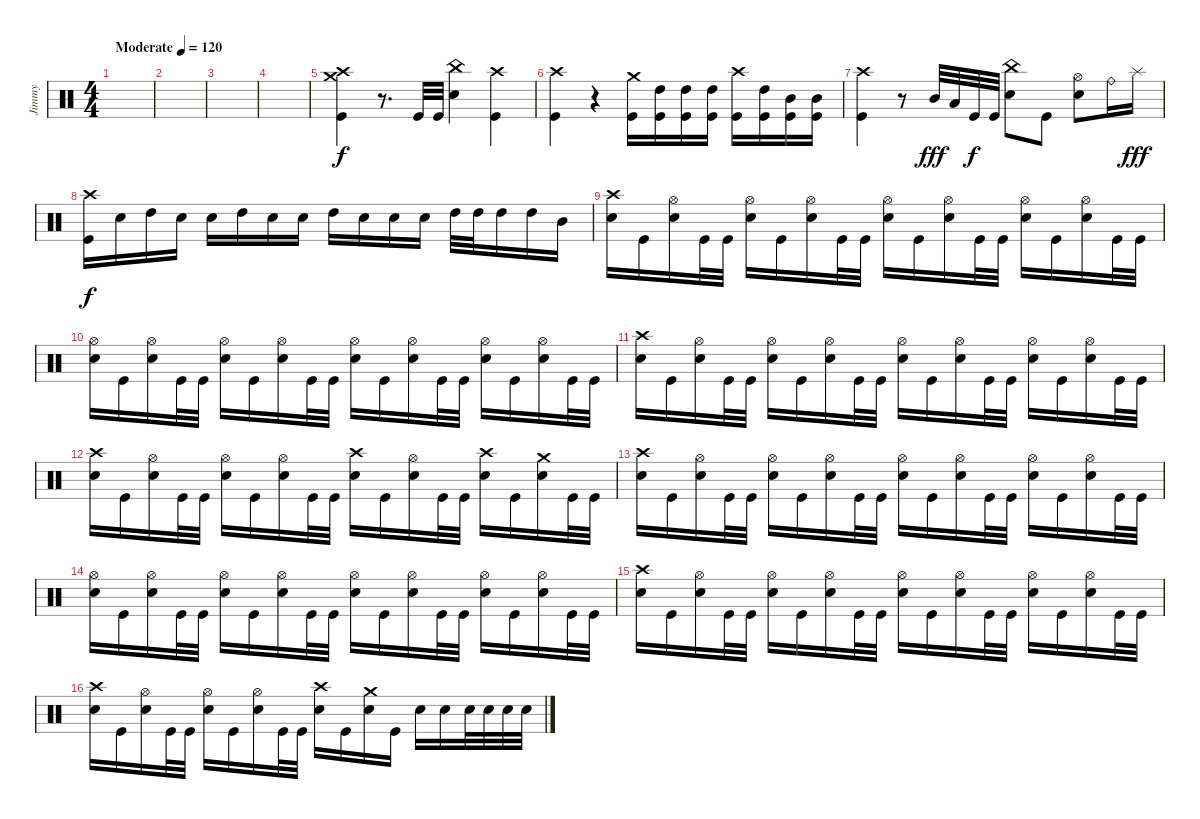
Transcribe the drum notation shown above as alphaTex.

\track ("Jimmy" "Jimmy") {instrument percussion}
\staff {score}
\articulation defaults
\ts (4 4)
\tempo (120 "Moderate")
\clef neutral
\ks c
|
|
|
|
("Crash high (hit)" "Kick (hit)" "Crash medium (hit)").4 r.8{d} "Kick (hit)".32 "Kick (hit)".32 ("Snare (hit) 2" "China (hit)").4 ("Crash high (hit)" "Kick (hit)").4 |
("Kick (hit)" "Crash high (hit)").4 r.4 ("Kick (hit)" "Crash medium (hit)").16 ("High Tom (hit)" "Kick (hit)").16 ("High Tom (hit)" "Kick (hit)").16 ("High Tom (hit)" "Kick (hit)").16 ("Crash high (hit)" "Kick (hit)").16 ("High Tom (hit)" "Kick (hit)").16 ("Mid Tom (hit)" "Kick (hit)").16 ("Mid Tom (hit)" "Kick (hit)").16 |
("Kick (hit)" "Crash high (hit)").4 r.8 "Mid Tom (hit)".32{dy fff} "Low Tom (hit)".32 "Kick (hit)".32{dy f} "Kick (hit)".32 ("Snare (hit) 2" "China (hit)").8 "Kick (hit)".8 ("Snare (hit) 2" "Hi-Hat (open)").8 "Ride (bell)".16 "Splash (hit)".16{dy fff} |
("Kick (hit)" "Crash high (hit)").16{dy f} "Snare (hit) 2".16 "High Tom (hit)".16 "Snare (hit) 2".16 "Snare (hit) 2".16 "High Tom (hit)".16 "Snare (hit) 2".16 "Snare (hit) 2".16 "High Tom (hit)".16 "Snare (hit) 2".16 "Snare (hit) 2".16 "Snare (hit) 2".16 "High Tom (hit)".32 "High Tom (hit)".32 "High Tom (hit)".16 "High Tom (hit)".16 "Mid Tom (hit)".16 |
("Snare (hit) 2" "Crash high (hit)").16 "Kick (hit)".16 ("Snare (hit) 2" "Hi-Hat (open)").16 "Kick (hit)".32 "Kick (hit)".32 ("Snare (hit) 2" "Hi-Hat (open)").16 "Kick (hit)".16 ("Snare (hit) 2" "Hi-Hat (open)").16 "Kick (hit)".32 "Kick (hit)".32 ("Snare (hit) 2" "Hi-Hat (open)").16 "Kick (hit)".16 ("Snare (hit) 2" "Hi-Hat (open)").16 "Kick (hit)".32 "Kick (hit)".32 ("Snare (hit) 2" "Hi-Hat (open)").16 "Kick (hit)".16 ("Snare (hit) 2" "Hi-Hat (open)").16 "Kick (hit)".32 "Kick (hit)".32 |
("Snare (hit) 2" "Hi-Hat (open)").16 "Kick (hit)".16 ("Snare (hit) 2" "Hi-Hat (open)").16 "Kick (hit)".32 "Kick (hit)".32 ("Snare (hit) 2" "Hi-Hat (open)").16 "Kick (hit)".16 ("Snare (hit) 2" "Hi-Hat (open)").16 "Kick (hit)".32 "Kick (hit)".32 ("Snare (hit) 2" "Hi-Hat (open)").16 "Kick (hit)".16 ("Snare (hit) 2" "Hi-Hat (open)").16 "Kick (hit)".32 "Kick (hit)".32 ("Snare (hit) 2" "Hi-Hat (open)").16 "Kick (hit)".16 ("Snare (hit) 2" "Hi-Hat (open)").16 "Kick (hit)".32 "Kick (hit)".32 |
("Snare (hit) 2" "Crash high (hit)").16 "Kick (hit)".16 ("Snare (hit) 2" "Hi-Hat (open)").16 "Kick (hit)".32 "Kick (hit)".32 ("Snare (hit) 2" "Hi-Hat (open)").16 "Kick (hit)".16 ("Snare (hit) 2" "Hi-Hat (open)").16 "Kick (hit)".32 "Kick (hit)".32 ("Snare (hit) 2" "Hi-Hat (open)").16 "Kick (hit)".16 ("Snare (hit) 2" "Hi-Hat (open)").16 "Kick (hit)".32 "Kick (hit)".32 ("Snare (hit) 2" "Hi-Hat (open)").16 "Kick (hit)".16 ("Snare (hit) 2" "Hi-Hat (open)").16 "Kick (hit)".32 "Kick (hit)".32 |
("Snare (hit) 2" "Crash high (hit)").16 "Kick (hit)".16 ("Snare (hit) 2" "Hi-Hat (open)").16 "Kick (hit)".32 "Kick (hit)".32 ("Snare (hit) 2" "Hi-Hat (open)").16 "Kick (hit)".16 ("Snare (hit) 2" "Hi-Hat (open)").16 "Kick (hit)".32 "Kick (hit)".32 ("Snare (hit) 2" "Crash high (hit)").16 "Kick (hit)".16 ("Snare (hit) 2" "Hi-Hat (open)").16 "Kick (hit)".32 "Kick (hit)".32 ("Snare (hit) 2" "Crash high (hit)").16 "Kick (hit)".16 ("Snare (hit) 2" "Crash medium (hit)").16 "Kick (hit)".32 "Kick (hit)".32 |
("Snare (hit) 2" "Crash high (hit)").16 "Kick (hit)".16 ("Snare (hit) 2" "Hi-Hat (open)").16 "Kick (hit)".32 "Kick (hit)".32 ("Snare (hit) 2" "Hi-Hat (open)").16 "Kick (hit)".16 ("Snare (hit) 2" "Hi-Hat (open)").16 "Kick (hit)".32 "Kick (hit)".32 ("Snare (hit) 2" "Hi-Hat (open)").16 "Kick (hit)".16 ("Snare (hit) 2" "Hi-Hat (open)").16 "Kick (hit)".32 "Kick (hit)".32 ("Snare (hit) 2" "Hi-Hat (open)").16 "Kick (hit)".16 ("Snare (hit) 2" "Hi-Hat (open)").16 "Kick (hit)".32 "Kick (hit)".32 |
("Snare (hit) 2" "Hi-Hat (open)").16 "Kick (hit)".16 ("Snare (hit) 2" "Hi-Hat (open)").16 "Kick (hit)".32 "Kick (hit)".32 ("Snare (hit) 2" "Hi-Hat (open)").16 "Kick (hit)".16 ("Snare (hit) 2" "Hi-Hat (open)").16 "Kick (hit)".32 "Kick (hit)".32 ("Snare (hit) 2" "Hi-Hat (open)").16 "Kick (hit)".16 ("Snare (hit) 2" "Hi-Hat (open)").16 "Kick (hit)".32 "Kick (hit)".32 ("Snare (hit) 2" "Hi-Hat (open)").16 "Kick (hit)".16 ("Snare (hit) 2" "Hi-Hat (open)").16 "Kick (hit)".32 "Kick (hit)".32 |
("Snare (hit) 2" "Crash high (hit)").16 "Kick (hit)".16 ("Snare (hit) 2" "Hi-Hat (open)").16 "Kick (hit)".32 "Kick (hit)".32 ("Snare (hit) 2" "Hi-Hat (open)").16 "Kick (hit)".16 ("Snare (hit) 2" "Hi-Hat (open)").16 "Kick (hit)".32 "Kick (hit)".32 ("Snare (hit) 2" "Hi-Hat (open)").16 "Kick (hit)".16 ("Snare (hit) 2" "Hi-Hat (open)").16 "Kick (hit)".32 "Kick (hit)".32 ("Snare (hit) 2" "Hi-Hat (open)").16 "Kick (hit)".16 ("Snare (hit) 2" "Hi-Hat (open)").16 "Kick (hit)".32 "Kick (hit)".32 |
("Snare (hit) 2" "Crash high (hit)").16 "Kick (hit)".16 ("Snare (hit) 2" "Hi-Hat (open)").16 "Kick (hit)".32 "Kick (hit)".32 ("Snare (hit) 2" "Hi-Hat (open)").16 "Kick (hit)".16 ("Snare (hit) 2" "Hi-Hat (open)").16 "Kick (hit)".32 "Kick (hit)".32 ("Snare (hit) 2" "Crash high (hit)").16 "Kick (hit)".16 ("Snare (hit) 2" "Crash medium (hit)").16 "Kick (hit)".16 "Snare (hit) 2".16 "Snare (hit) 2".16 "Snare (hit) 2".32 "Snare (hit) 2".32 "Snare (hit) 2".32 "Snare (hit) 2".32
